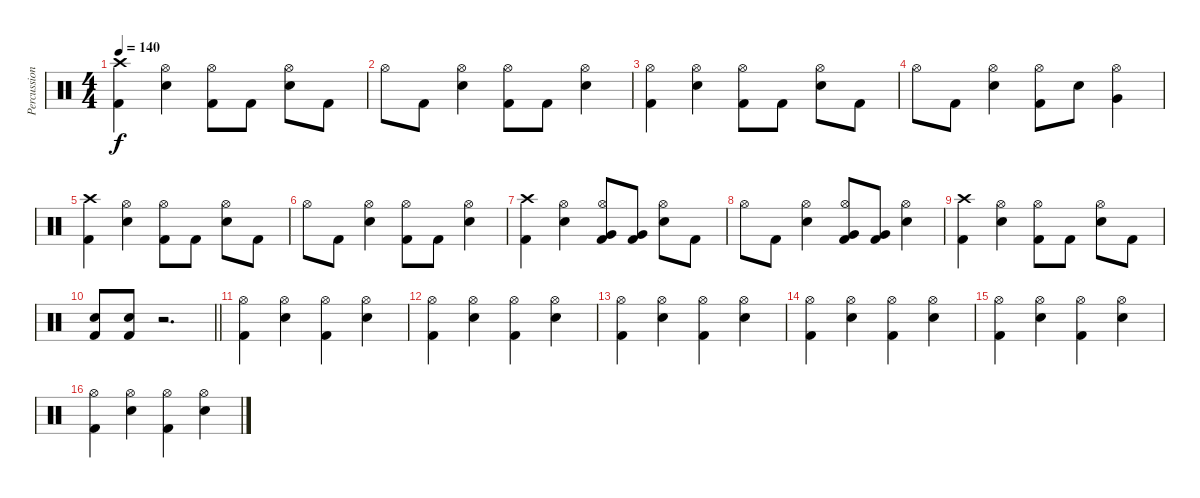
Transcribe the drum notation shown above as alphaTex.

\track ("Percussion" "Percussion") {instrument percussion}
\staff {score}
\articulation defaults
\ts (4 4)
\tempo 140
\clef neutral
\ks c
("Crash high (hit)" "Kick (hit) 2").4{dy f} ("Hi-Hat (open)" "Snare (hit) 2").4 ("Hi-Hat (open)" "Kick (hit) 2").8 "Kick (hit) 2".8 ("Hi-Hat (open)" "Snare (hit) 2").8 "Kick (hit) 2".8 |
"Hi-Hat (open)".8 "Kick (hit) 2".8 ("Hi-Hat (open)" "Snare (hit) 2").4 ("Hi-Hat (open)" "Kick (hit) 2").8 "Kick (hit) 2".8 ("Hi-Hat (open)" "Snare (hit) 2").4 |
("Hi-Hat (open)" "Kick (hit) 2").4 ("Hi-Hat (open)" "Snare (hit) 2").4 ("Hi-Hat (open)" "Kick (hit) 2").8 "Kick (hit) 2".8 ("Hi-Hat (open)" "Snare (hit) 2").8 "Kick (hit) 2".8 |
"Hi-Hat (open)".8 "Kick (hit) 2".8 ("Hi-Hat (open)" "Snare (hit) 2").4 ("Hi-Hat (open)" "Kick (hit) 2").8 "Snare (hit) 2".8 ("Hi-Hat (open)" "Very Low Tom (hit)").4 |
("Crash high (hit)" "Kick (hit) 2").4 ("Hi-Hat (open)" "Snare (hit) 2").4 ("Hi-Hat (open)" "Kick (hit) 2").8 "Kick (hit) 2".8 ("Hi-Hat (open)" "Snare (hit) 2").8 "Kick (hit) 2".8 |
"Hi-Hat (open)".8 "Kick (hit) 2".8 ("Hi-Hat (open)" "Snare (hit) 2").4 ("Hi-Hat (open)" "Kick (hit) 2").8 "Kick (hit) 2".8 ("Hi-Hat (open)" "Snare (hit) 2").4 |
("Crash high (hit)" "Kick (hit) 2").4 ("Hi-Hat (open)" "Snare (hit) 2").4 ("Hi-Hat (open)" "Very Low Tom (hit)" "Kick (hit) 2").8 ("Very Low Tom (hit)" "Kick (hit) 2").8 ("Hi-Hat (open)" "Snare (hit) 2").8 "Kick (hit) 2".8 |
"Hi-Hat (open)".8 "Kick (hit) 2".8 ("Hi-Hat (open)" "Snare (hit) 2").4 ("Hi-Hat (open)" "Very Low Tom (hit)" "Kick (hit) 2").8 ("Very Low Tom (hit)" "Kick (hit) 2").8 ("Hi-Hat (open)" "Snare (hit) 2").4 |
("Crash high (hit)" "Kick (hit) 2").4 ("Hi-Hat (open)" "Snare (hit) 2").4 ("Hi-Hat (open)" "Kick (hit) 2").8 "Kick (hit) 2".8 ("Hi-Hat (open)" "Snare (hit) 2").8 "Kick (hit) 2".8 |
\barLineRight lightlight
("Snare (hit) 2" "Kick (hit) 2").8 ("Snare (hit) 2" "Kick (hit) 2").8 r.2{d} |
("Hi-Hat (open)" "Kick (hit) 2").4 ("Hi-Hat (open)" "Snare (hit) 2").4 ("Hi-Hat (open)" "Kick (hit) 2").4 ("Hi-Hat (open)" "Snare (hit) 2").4 |
("Hi-Hat (open)" "Kick (hit) 2").4 ("Hi-Hat (open)" "Snare (hit) 2").4 ("Hi-Hat (open)" "Kick (hit) 2").4 ("Hi-Hat (open)" "Snare (hit) 2").4 |
("Hi-Hat (open)" "Kick (hit) 2").4 ("Hi-Hat (open)" "Snare (hit) 2").4 ("Hi-Hat (open)" "Kick (hit) 2").4 ("Hi-Hat (open)" "Snare (hit) 2").4 |
("Hi-Hat (open)" "Kick (hit) 2").4 ("Hi-Hat (open)" "Snare (hit) 2").4 ("Hi-Hat (open)" "Kick (hit) 2").4 ("Hi-Hat (open)" "Snare (hit) 2").4 |
("Hi-Hat (open)" "Kick (hit) 2").4 ("Hi-Hat (open)" "Snare (hit) 2").4 ("Hi-Hat (open)" "Kick (hit) 2").4 ("Hi-Hat (open)" "Snare (hit) 2").4 |
("Hi-Hat (open)" "Kick (hit) 2").4 ("Hi-Hat (open)" "Snare (hit) 2").4 ("Hi-Hat (open)" "Kick (hit) 2").4 ("Hi-Hat (open)" "Snare (hit) 2").4
